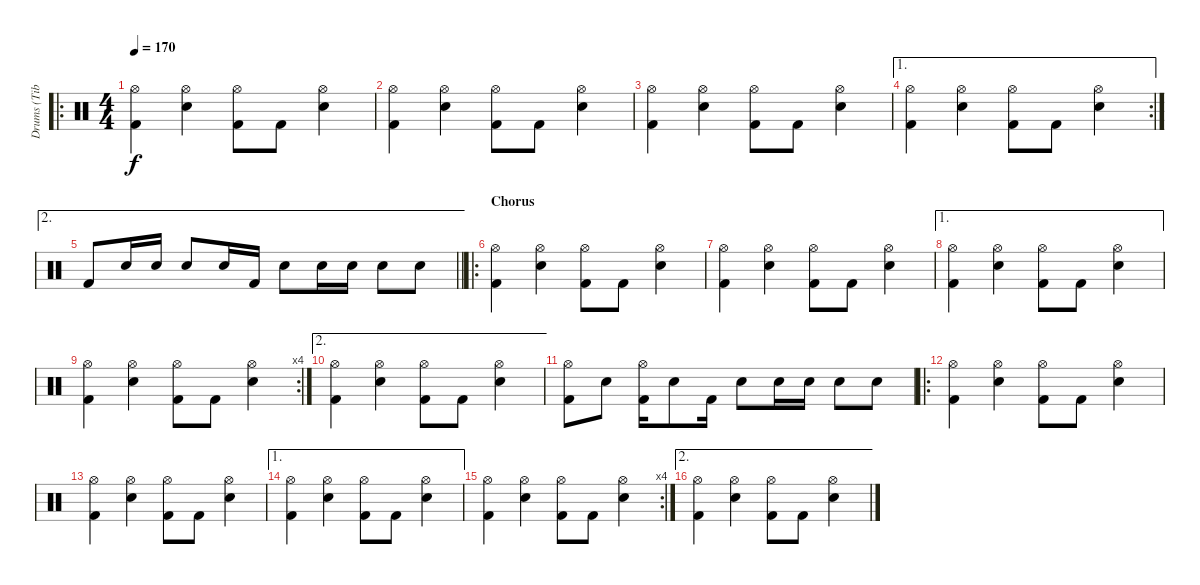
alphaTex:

\track ("Drums (Tibcsi Kiss)" "Drums (Tib") {instrument percussion}
\staff {score}
\articulation defaults
\ro
\ts (4 4)
\tempo 170
\clef neutral
\ks c
("Hi-Hat (open)" "Kick (hit) 2").4{dy f} ("Hi-Hat (open)" "Snare (hit) 2").4 ("Hi-Hat (open)" "Kick (hit) 2").8 "Kick (hit) 2".8 ("Hi-Hat (open)" "Snare (hit) 2").4 |
("Hi-Hat (open)" "Kick (hit) 2").4 ("Hi-Hat (open)" "Snare (hit) 2").4 ("Hi-Hat (open)" "Kick (hit) 2").8 "Kick (hit) 2".8 ("Hi-Hat (open)" "Snare (hit) 2").4 |
("Hi-Hat (open)" "Kick (hit) 2").4 ("Hi-Hat (open)" "Snare (hit) 2").4 ("Hi-Hat (open)" "Kick (hit) 2").8 "Kick (hit) 2".8 ("Hi-Hat (open)" "Snare (hit) 2").4 |
\ae 1
\rc 2
("Hi-Hat (open)" "Kick (hit) 2").4 ("Hi-Hat (open)" "Snare (hit) 2").4 ("Hi-Hat (open)" "Kick (hit) 2").8 "Kick (hit) 2".8 ("Hi-Hat (open)" "Snare (hit) 2").4 |
\ae 2
\barLineRight lightlight "Kick (hit) 2".8 "Snare (hit) 2".16 "Snare (hit) 2".16 "Snare (hit) 2".8 "Snare (hit) 2".16 "Kick (hit) 2".16 "Snare (hit) 2".8 "Snare (hit) 2".16 "Snare (hit) 2".16 "Snare (hit) 2".8 "Snare (hit) 2".8
|
\ro
\section ("" "Chorus")
("Hi-Hat (open)" "Kick (hit) 2").4 ("Hi-Hat (open)" "Snare (hit) 2").4 ("Hi-Hat (open)" "Kick (hit) 2").8 "Kick (hit) 2".8 ("Hi-Hat (open)" "Snare (hit) 2").4 |
("Hi-Hat (open)" "Kick (hit) 2").4 ("Hi-Hat (open)" "Snare (hit) 2").4 ("Hi-Hat (open)" "Kick (hit) 2").8 "Kick (hit) 2".8 ("Hi-Hat (open)" "Snare (hit) 2").4 |
\ae 1
("Hi-Hat (open)" "Kick (hit) 2").4 ("Hi-Hat (open)" "Snare (hit) 2").4 ("Hi-Hat (open)" "Kick (hit) 2").8 "Kick (hit) 2".8 ("Hi-Hat (open)" "Snare (hit) 2").4 |
\rc 4
("Hi-Hat (open)" "Kick (hit) 2").4 ("Hi-Hat (open)" "Snare (hit) 2").4 ("Hi-Hat (open)" "Kick (hit) 2").8 "Kick (hit) 2".8 ("Hi-Hat (open)" "Snare (hit) 2").4 |
\ae 2
("Hi-Hat (open)" "Kick (hit) 2").4 ("Hi-Hat (open)" "Snare (hit) 2").4 ("Hi-Hat (open)" "Kick (hit) 2").8 "Kick (hit) 2".8 ("Hi-Hat (open)" "Snare (hit) 2").4 |
("Hi-Hat (open)" "Kick (hit) 2").8 "Snare (hit) 2".8 ("Hi-Hat (open)" "Kick (hit) 2").16 "Snare (hit) 2".8 "Kick (hit) 2".16 "Snare (hit) 2".8 "Snare (hit) 2".16 "Snare (hit) 2".16 "Snare (hit) 2".8 "Snare (hit) 2".8 |
\ro
("Hi-Hat (open)" "Kick (hit) 2").4 ("Hi-Hat (open)" "Snare (hit) 2").4 ("Hi-Hat (open)" "Kick (hit) 2").8 "Kick (hit) 2".8 ("Hi-Hat (open)" "Snare (hit) 2").4 |
("Hi-Hat (open)" "Kick (hit) 2").4 ("Hi-Hat (open)" "Snare (hit) 2").4 ("Hi-Hat (open)" "Kick (hit) 2").8 "Kick (hit) 2".8 ("Hi-Hat (open)" "Snare (hit) 2").4 |
\ae 1
("Hi-Hat (open)" "Kick (hit) 2").4 ("Hi-Hat (open)" "Snare (hit) 2").4 ("Hi-Hat (open)" "Kick (hit) 2").8 "Kick (hit) 2".8 ("Hi-Hat (open)" "Snare (hit) 2").4 |
\rc 4
("Hi-Hat (open)" "Kick (hit) 2").4 ("Hi-Hat (open)" "Snare (hit) 2").4 ("Hi-Hat (open)" "Kick (hit) 2").8 "Kick (hit) 2".8 ("Hi-Hat (open)" "Snare (hit) 2").4 |
\ae 2
("Hi-Hat (open)" "Kick (hit) 2").4 ("Hi-Hat (open)" "Snare (hit) 2").4 ("Hi-Hat (open)" "Kick (hit) 2").8 "Kick (hit) 2".8 ("Hi-Hat (open)" "Snare (hit) 2").4
